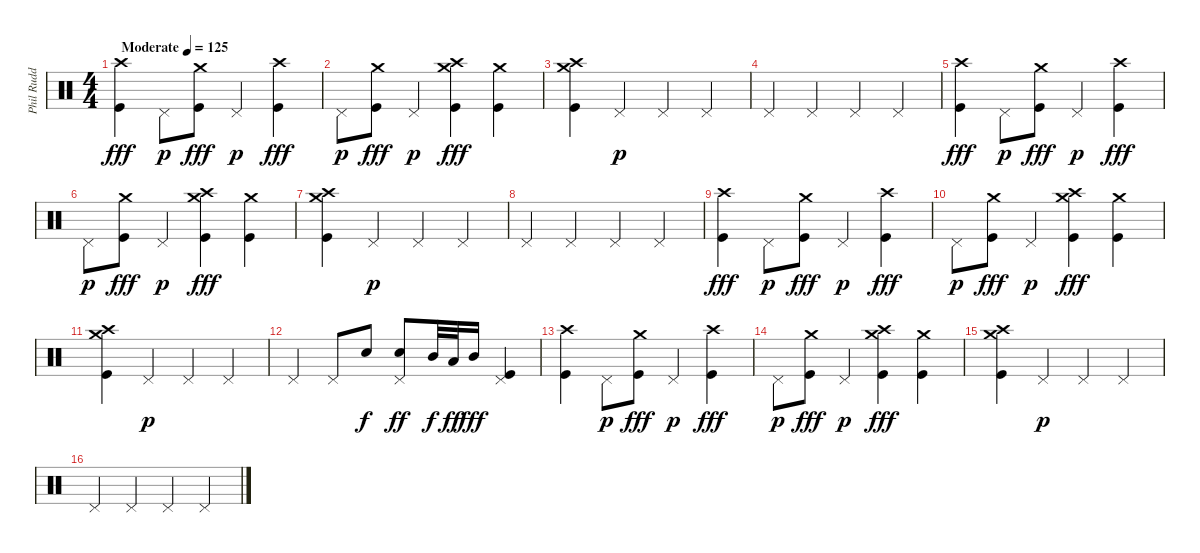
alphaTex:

\track ("Phil Rudd" "Phil Rudd") {instrument percussion}
\staff {score}
\articulation defaults
\ts (4 4)
\tempo (125 "Moderate")
\clef neutral
\ks c
("Crash high (hit)" "Kick (hit)").4{dy fff} "Pedal Hi-Hat (hit)".8{dy p} ("Crash medium (hit)" "Kick (hit)").8{dy fff} "Pedal Hi-Hat (hit)".4{dy p} ("Crash high (hit)" "Kick (hit)").4{dy fff} |
"Pedal Hi-Hat (hit)".8{dy p} ("Crash medium (hit)" "Kick (hit)").8{dy fff} "Pedal Hi-Hat (hit)".4{dy p} ("Crash high (hit)" "Crash medium (hit)" "Kick (hit)").4{dy fff} ("Crash medium (hit)" "Kick (hit)").4 |
("Crash high (hit)" "Crash medium (hit)" "Kick (hit)").4 "Pedal Hi-Hat (hit)".4{dy p} "Pedal Hi-Hat (hit)".4 "Pedal Hi-Hat (hit)".4 |
"Pedal Hi-Hat (hit)".4 "Pedal Hi-Hat (hit)".4 "Pedal Hi-Hat (hit)".4 "Pedal Hi-Hat (hit)".4 |
("Crash high (hit)" "Kick (hit)").4{dy fff} "Pedal Hi-Hat (hit)".8{dy p} ("Crash medium (hit)" "Kick (hit)").8{dy fff} "Pedal Hi-Hat (hit)".4{dy p} ("Crash high (hit)" "Kick (hit)").4{dy fff} |
"Pedal Hi-Hat (hit)".8{dy p} ("Crash medium (hit)" "Kick (hit)").8{dy fff} "Pedal Hi-Hat (hit)".4{dy p} ("Crash high (hit)" "Crash medium (hit)" "Kick (hit)").4{dy fff} ("Crash medium (hit)" "Kick (hit)").4 |
("Crash high (hit)" "Crash medium (hit)" "Kick (hit)").4 "Pedal Hi-Hat (hit)".4{dy p} "Pedal Hi-Hat (hit)".4 "Pedal Hi-Hat (hit)".4 |
"Pedal Hi-Hat (hit)".4 "Pedal Hi-Hat (hit)".4 "Pedal Hi-Hat (hit)".4 "Pedal Hi-Hat (hit)".4 |
("Crash high (hit)" "Kick (hit)").4{dy fff} "Pedal Hi-Hat (hit)".8{dy p} ("Crash medium (hit)" "Kick (hit)").8{dy fff} "Pedal Hi-Hat (hit)".4{dy p} ("Crash high (hit)" "Kick (hit)").4{dy fff} |
"Pedal Hi-Hat (hit)".8{dy p} ("Crash medium (hit)" "Kick (hit)").8{dy fff} "Pedal Hi-Hat (hit)".4{dy p} ("Crash high (hit)" "Crash medium (hit)" "Kick (hit)").4{dy fff} ("Crash medium (hit)" "Kick (hit)").4 |
("Crash high (hit)" "Crash medium (hit)" "Kick (hit)").4 "Pedal Hi-Hat (hit)".4{dy p} "Pedal Hi-Hat (hit)".4 "Pedal Hi-Hat (hit)".4 |
"Pedal Hi-Hat (hit)".4 "Pedal Hi-Hat (hit)".8 "Snare (hit) 2".8{dy f} ("Pedal Hi-Hat (hit)" "Snare (hit) 2").8{dy ff} "Mid Tom (hit)".32{dy f} "Low Floor Tom (hit)".32{dy ff} "Mid Tom (hit)".16{dy fff} ("Pedal Hi-Hat (hit)" "Kick (hit)").4 |
("Crash high (hit)" "Kick (hit)").4 "Pedal Hi-Hat (hit)".8{dy p} ("Crash medium (hit)" "Kick (hit)").8{dy fff} "Pedal Hi-Hat (hit)".4{dy p} ("Crash high (hit)" "Kick (hit)").4{dy fff} |
"Pedal Hi-Hat (hit)".8{dy p} ("Crash medium (hit)" "Kick (hit)").8{dy fff} "Pedal Hi-Hat (hit)".4{dy p} ("Crash high (hit)" "Crash medium (hit)" "Kick (hit)").4{dy fff} ("Crash medium (hit)" "Kick (hit)").4 |
("Crash high (hit)" "Crash medium (hit)" "Kick (hit)").4 "Pedal Hi-Hat (hit)".4{dy p} "Pedal Hi-Hat (hit)".4 "Pedal Hi-Hat (hit)".4 |
"Pedal Hi-Hat (hit)".4 "Pedal Hi-Hat (hit)".4 "Pedal Hi-Hat (hit)".4 "Pedal Hi-Hat (hit)".4
